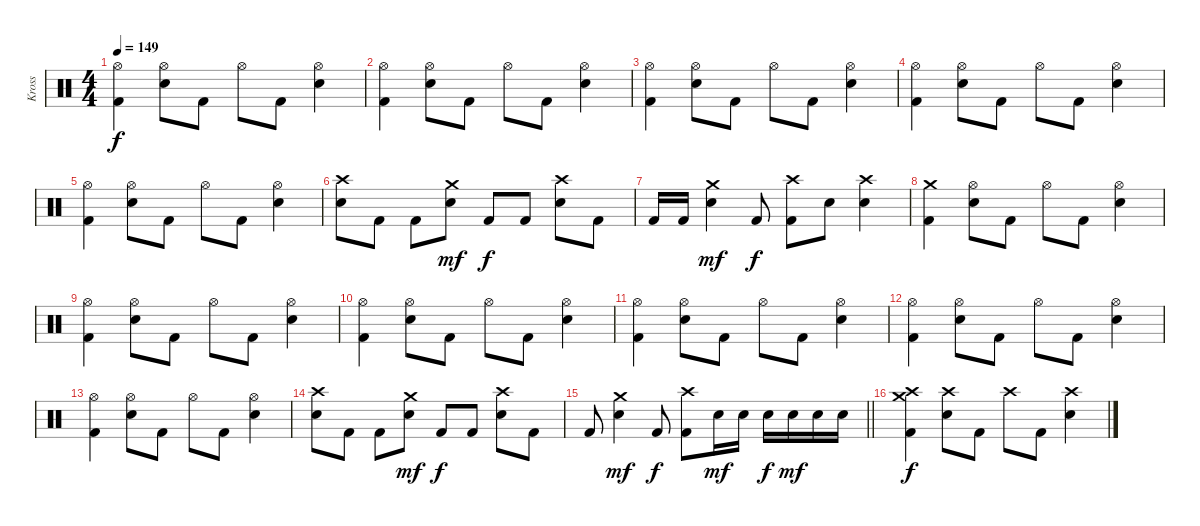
\track ("Kross" "Kross") {instrument percussion}
\staff {score}
\articulation defaults
\ts (4 4)
\tempo 149
\clef neutral
\ks c
("Hi-Hat (open)" "Kick (hit) 2").4{dy f} ("Hi-Hat (open)" "Electric Snare (hit)").8 "Kick (hit) 2".8 "Hi-Hat (open)".8 "Kick (hit) 2".8 ("Hi-Hat (open)" "Electric Snare (hit)").4 |
("Hi-Hat (open)" "Kick (hit) 2").4 ("Hi-Hat (open)" "Electric Snare (hit)").8 "Kick (hit) 2".8 "Hi-Hat (open)".8 "Kick (hit) 2".8 ("Hi-Hat (open)" "Electric Snare (hit)").4 |
("Hi-Hat (open)" "Kick (hit) 2").4 ("Hi-Hat (open)" "Electric Snare (hit)").8 "Kick (hit) 2".8 "Hi-Hat (open)".8 "Kick (hit) 2".8 ("Hi-Hat (open)" "Electric Snare (hit)").4 |
("Hi-Hat (open)" "Kick (hit) 2").4 ("Hi-Hat (open)" "Electric Snare (hit)").8 "Kick (hit) 2".8 "Hi-Hat (open)".8 "Kick (hit) 2".8 ("Hi-Hat (open)" "Electric Snare (hit)").4 |
("Hi-Hat (open)" "Kick (hit) 2").4 ("Hi-Hat (open)" "Electric Snare (hit)").8 "Kick (hit) 2".8 "Hi-Hat (open)".8 "Kick (hit) 2".8 ("Hi-Hat (open)" "Electric Snare (hit)").4 |
("Crash high (hit)" "Electric Snare (hit)").8 "Kick (hit) 2".8 "Kick (hit) 2".8 ("Crash medium (hit)" "Electric Snare (hit)").8{dy mf} "Kick (hit) 2".8{dy f} "Kick (hit) 2".8 ("Crash high (hit)" "Electric Snare (hit)").8 "Kick (hit) 2".8 |
"Kick (hit) 2".16 "Kick (hit) 2".16 ("Crash medium (hit)" "Electric Snare (hit)").4{dy mf} "Kick (hit) 2".8{dy f} ("Crash high (hit)" "Kick (hit) 2").8 "Electric Snare (hit)".8 ("Crash high (hit)" "Electric Snare (hit)").4 |
("Crash medium (hit)" "Kick (hit) 2").4 ("Hi-Hat (open)" "Electric Snare (hit)").8 "Kick (hit) 2".8 "Hi-Hat (open)".8 "Kick (hit) 2".8 ("Hi-Hat (open)" "Electric Snare (hit)").4 |
("Hi-Hat (open)" "Kick (hit) 2").4 ("Hi-Hat (open)" "Electric Snare (hit)").8 "Kick (hit) 2".8 "Hi-Hat (open)".8 "Kick (hit) 2".8 ("Hi-Hat (open)" "Electric Snare (hit)").4 |
("Hi-Hat (open)" "Kick (hit) 2").4 ("Hi-Hat (open)" "Electric Snare (hit)").8 "Kick (hit) 2".8 "Hi-Hat (open)".8 "Kick (hit) 2".8 ("Hi-Hat (open)" "Electric Snare (hit)").4 |
("Hi-Hat (open)" "Kick (hit) 2").4 ("Hi-Hat (open)" "Electric Snare (hit)").8 "Kick (hit) 2".8 "Hi-Hat (open)".8 "Kick (hit) 2".8 ("Hi-Hat (open)" "Electric Snare (hit)").4 |
("Hi-Hat (open)" "Kick (hit) 2").4 ("Hi-Hat (open)" "Electric Snare (hit)").8 "Kick (hit) 2".8 "Hi-Hat (open)".8 "Kick (hit) 2".8 ("Hi-Hat (open)" "Electric Snare (hit)").4 |
("Hi-Hat (open)" "Kick (hit) 2").4 ("Hi-Hat (open)" "Electric Snare (hit)").8 "Kick (hit) 2".8 "Hi-Hat (open)".8 "Kick (hit) 2".8 ("Hi-Hat (open)" "Electric Snare (hit)").4 |
("Crash high (hit)" "Electric Snare (hit)").8 "Kick (hit) 2".8 "Kick (hit) 2".8 ("Crash medium (hit)" "Electric Snare (hit)").8{dy mf} "Kick (hit) 2".8{dy f} "Kick (hit) 2".8 ("Crash high (hit)" "Electric Snare (hit)").8 "Kick (hit) 2".8 |
\barLineRight lightlight "Kick (hit) 2".8
("Crash medium (hit)" "Electric Snare (hit)").4{dy mf} "Kick (hit) 2".8{dy f} ("Crash high (hit)" "Kick (hit) 2").8 "Electric Snare (hit)".16{dy mf} "Electric Snare (hit)".16 "Electric Snare (hit)".16{dy f} "Electric Snare (hit)".16{dy mf} "Electric Snare (hit)".16 "Electric Snare (hit)".16 |
("Crash medium (hit)" "Crash high (hit)" "Kick (hit) 2").4{dy f} ("Crash high (hit)" "Electric Snare (hit)").8 "Kick (hit) 2".8 "Crash high (hit)".8 "Kick (hit) 2".8 ("Crash high (hit)" "Electric Snare (hit)").4
